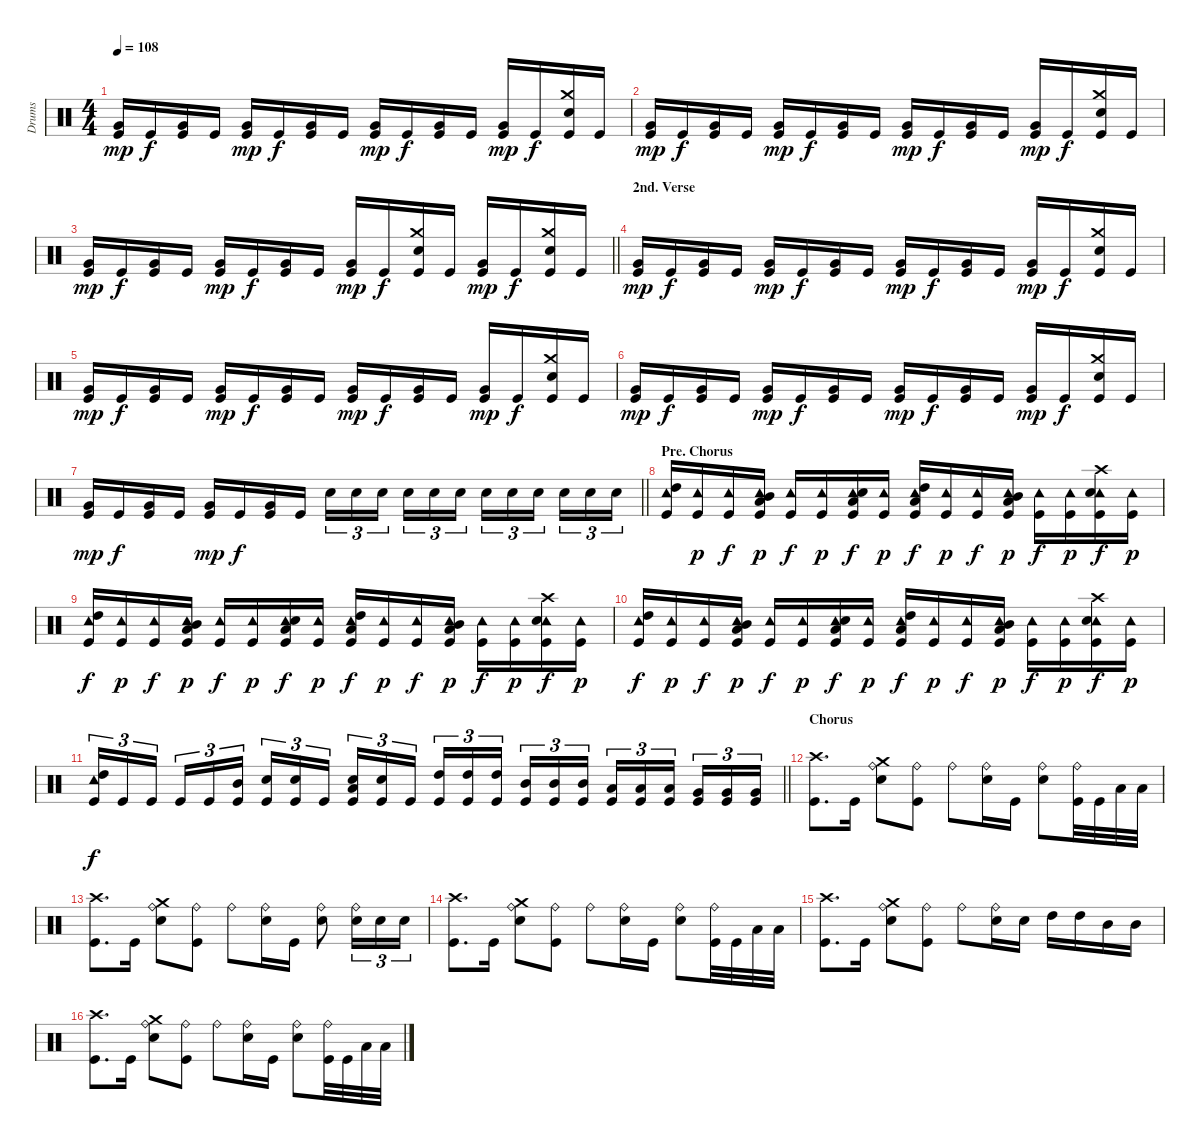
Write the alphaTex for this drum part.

\track ("Drums" "Drums") {instrument percussion}
\staff {score}
\articulation defaults
\ts (4 4)
\tempo 108
\clef neutral
\ks c
("Very Low Tom (hit)" "Kick (hit)").16{dy mp} "Kick (hit)".16{dy f} ("Very Low Tom (hit)" "Kick (hit)").16 "Kick (hit)".16 ("Very Low Tom (hit)" "Kick (hit)").16{dy mp} "Kick (hit)".16{dy f} ("Very Low Tom (hit)" "Kick (hit)").16 "Kick (hit)".16 ("Very Low Tom (hit)" "Kick (hit)").16{dy mp} "Kick (hit)".16{dy f} ("Very Low Tom (hit)" "Kick (hit)").16 "Kick (hit)".16 ("Very Low Tom (hit)" "Kick (hit)").16{dy mp} "Kick (hit)".16{dy f} ("Crash medium (hit)" "Electric Snare (hit)" "Kick (hit)").16 "Kick (hit)".16 |
("Very Low Tom (hit)" "Kick (hit)").16{dy mp} "Kick (hit)".16{dy f} ("Very Low Tom (hit)" "Kick (hit)").16 "Kick (hit)".16 ("Very Low Tom (hit)" "Kick (hit)").16{dy mp} "Kick (hit)".16{dy f} ("Very Low Tom (hit)" "Kick (hit)").16 "Kick (hit)".16 ("Very Low Tom (hit)" "Kick (hit)").16{dy mp} "Kick (hit)".16{dy f} ("Very Low Tom (hit)" "Kick (hit)").16 "Kick (hit)".16 ("Very Low Tom (hit)" "Kick (hit)").16{dy mp} "Kick (hit)".16{dy f} ("Crash medium (hit)" "Electric Snare (hit)" "Kick (hit)").16 "Kick (hit)".16 |
\barLineRight lightlight
("Very Low Tom (hit)" "Kick (hit)").16{dy mp} "Kick (hit)".16{dy f} ("Very Low Tom (hit)" "Kick (hit)").16 "Kick (hit)".16 ("Very Low Tom (hit)" "Kick (hit)").16{dy mp} "Kick (hit)".16{dy f} ("Very Low Tom (hit)" "Kick (hit)").16 "Kick (hit)".16 ("Very Low Tom (hit)" "Kick (hit)").16{dy mp} "Kick (hit)".16{dy f} ("Crash medium (hit)" "Electric Snare (hit)" "Kick (hit)").16 "Kick (hit)".16 ("Very Low Tom (hit)" "Kick (hit)").16{dy mp} "Kick (hit)".16{dy f} ("Crash medium (hit)" "Electric Snare (hit)" "Kick (hit)").16 "Kick (hit)".16 |
\section ("" "2nd. Verse")
("Very Low Tom (hit)" "Kick (hit)").16{dy mp} "Kick (hit)".16{dy f} ("Very Low Tom (hit)" "Kick (hit)").16 "Kick (hit)".16 ("Very Low Tom (hit)" "Kick (hit)").16{dy mp} "Kick (hit)".16{dy f} ("Very Low Tom (hit)" "Kick (hit)").16 "Kick (hit)".16 ("Very Low Tom (hit)" "Kick (hit)").16{dy mp} "Kick (hit)".16{dy f} ("Very Low Tom (hit)" "Kick (hit)").16 "Kick (hit)".16 ("Very Low Tom (hit)" "Kick (hit)").16{dy mp} "Kick (hit)".16{dy f} ("Crash medium (hit)" "Electric Snare (hit)" "Kick (hit)").16 "Kick (hit)".16 |
("Very Low Tom (hit)" "Kick (hit)").16{dy mp} "Kick (hit)".16{dy f} ("Very Low Tom (hit)" "Kick (hit)").16 "Kick (hit)".16 ("Very Low Tom (hit)" "Kick (hit)").16{dy mp} "Kick (hit)".16{dy f} ("Very Low Tom (hit)" "Kick (hit)").16 "Kick (hit)".16 ("Very Low Tom (hit)" "Kick (hit)").16{dy mp} "Kick (hit)".16{dy f} ("Very Low Tom (hit)" "Kick (hit)").16 "Kick (hit)".16 ("Very Low Tom (hit)" "Kick (hit)").16{dy mp} "Kick (hit)".16{dy f} ("Crash medium (hit)" "Electric Snare (hit)" "Kick (hit)").16 "Kick (hit)".16 |
("Very Low Tom (hit)" "Kick (hit)").16{dy mp} "Kick (hit)".16{dy f} ("Very Low Tom (hit)" "Kick (hit)").16 "Kick (hit)".16 ("Very Low Tom (hit)" "Kick (hit)").16{dy mp} "Kick (hit)".16{dy f} ("Very Low Tom (hit)" "Kick (hit)").16 "Kick (hit)".16 ("Very Low Tom (hit)" "Kick (hit)").16{dy mp} "Kick (hit)".16{dy f} ("Very Low Tom (hit)" "Kick (hit)").16 "Kick (hit)".16 ("Very Low Tom (hit)" "Kick (hit)").16{dy mp} "Kick (hit)".16{dy f} ("Crash medium (hit)" "Electric Snare (hit)" "Kick (hit)").16 "Kick (hit)".16 |
\barLineRight lightlight
("Very Low Tom (hit)" "Kick (hit)").16{dy mp} "Kick (hit)".16{dy f} ("Very Low Tom (hit)" "Kick (hit)").16 "Kick (hit)".16 ("Very Low Tom (hit)" "Kick (hit)").16{dy mp} "Kick (hit)".16{dy f} ("Very Low Tom (hit)" "Kick (hit)").16 "Kick (hit)".16 "Electric Snare (hit)".16{tu (3 2)} "Electric Snare (hit)".16{tu (3 2)} "Electric Snare (hit)".16{tu (3 2) beam splitsecondary} "Electric Snare (hit)".16{tu (3 2)} "Electric Snare (hit)".16{tu (3 2)} "Electric Snare (hit)".16{tu (3 2)} "Electric Snare (hit)".16{tu (3 2)} "Electric Snare (hit)".16{tu (3 2)} "Electric Snare (hit)".16{tu (3 2) beam splitsecondary} "Electric Snare (hit)".16{tu (3 2)} "Electric Snare (hit)".16{tu (3 2)} "Electric Snare (hit)".16{tu (3 2)} |
\section ("" "Pre. Chorus")
("Tambourine (hit)" "High Tom (hit)" "Kick (hit)").16 ("Tambourine (hit)" "Kick (hit)").16{dy p} ("Tambourine (hit)" "Kick (hit)").16{dy f} ("Tambourine (hit)" "Mid Tom (hit)" "Low Tom (hit)" "Kick (hit)").16{dy p} ("Tambourine (hit)" "Kick (hit)").16{dy f} ("Tambourine (hit)" "Kick (hit)").16{dy p} ("Tambourine (hit)" "Low Tom (hit)" "Electric Snare (hit)" "Kick (hit)").16{dy f} ("Tambourine (hit)" "Kick (hit)").16{dy p} ("Tambourine (hit)" "High Tom (hit)" "Low Tom (hit)" "Kick (hit)").16{dy f} ("Tambourine (hit)" "Kick (hit)").16{dy p} ("Tambourine (hit)" "Kick (hit)").16{dy f} ("Tambourine (hit)" "Mid Tom (hit)" "Low Tom (hit)" "Kick (hit)").16{dy p} ("Tambourine (hit)" "Kick (hit)").16{dy f} ("Tambourine (hit)" "Kick (hit)").16{dy p} ("Tambourine (hit)" "Crash high (hit)" "Electric Snare (hit)" "Kick (hit)").16{dy f} ("Tambourine (hit)" "Kick (hit)").16{dy p} |
("Tambourine (hit)" "High Tom (hit)" "Kick (hit)").16{dy f} ("Tambourine (hit)" "Kick (hit)").16{dy p} ("Tambourine (hit)" "Kick (hit)").16{dy f} ("Tambourine (hit)" "Mid Tom (hit)" "Low Tom (hit)" "Kick (hit)").16{dy p} ("Tambourine (hit)" "Kick (hit)").16{dy f} ("Tambourine (hit)" "Kick (hit)").16{dy p} ("Tambourine (hit)" "Low Tom (hit)" "Electric Snare (hit)" "Kick (hit)").16{dy f} ("Tambourine (hit)" "Kick (hit)").16{dy p} ("Tambourine (hit)" "High Tom (hit)" "Low Tom (hit)" "Kick (hit)").16{dy f} ("Tambourine (hit)" "Kick (hit)").16{dy p} ("Tambourine (hit)" "Kick (hit)").16{dy f} ("Tambourine (hit)" "Mid Tom (hit)" "Low Tom (hit)" "Kick (hit)").16{dy p} ("Tambourine (hit)" "Kick (hit)").16{dy f} ("Tambourine (hit)" "Kick (hit)").16{dy p} ("Tambourine (hit)" "Crash high (hit)" "Electric Snare (hit)" "Kick (hit)").16{dy f} ("Tambourine (hit)" "Kick (hit)").16{dy p} |
("Tambourine (hit)" "High Tom (hit)" "Kick (hit)").16{dy f} ("Tambourine (hit)" "Kick (hit)").16{dy p} ("Tambourine (hit)" "Kick (hit)").16{dy f} ("Tambourine (hit)" "Mid Tom (hit)" "Low Tom (hit)" "Kick (hit)").16{dy p} ("Tambourine (hit)" "Kick (hit)").16{dy f} ("Tambourine (hit)" "Kick (hit)").16{dy p} ("Tambourine (hit)" "Low Tom (hit)" "Electric Snare (hit)" "Kick (hit)").16{dy f} ("Tambourine (hit)" "Kick (hit)").16{dy p} ("Tambourine (hit)" "High Tom (hit)" "Low Tom (hit)" "Kick (hit)").16{dy f} ("Tambourine (hit)" "Kick (hit)").16{dy p} ("Tambourine (hit)" "Kick (hit)").16{dy f} ("Tambourine (hit)" "Mid Tom (hit)" "Low Tom (hit)" "Kick (hit)").16{dy p} ("Tambourine (hit)" "Kick (hit)").16{dy f} ("Tambourine (hit)" "Kick (hit)").16{dy p} ("Tambourine (hit)" "Crash high (hit)" "Electric Snare (hit)" "Kick (hit)").16{dy f} ("Tambourine (hit)" "Kick (hit)").16{dy p} |
\barLineRight lightlight
("Tambourine (hit)" "High Tom (hit)" "Kick (hit)").16{tu (3 2) dy f} "Kick (hit)".16{tu (3 2)} "Kick (hit)".16{tu (3 2) beam splitsecondary} "Kick (hit)".16{tu (3 2)} "Kick (hit)".16{tu (3 2)} ("Mid Tom (hit)" "Kick (hit)").16{tu (3 2)} ("Electric Snare (hit)" "Kick (hit)").16{tu (3 2)} ("Electric Snare (hit)" "Kick (hit)").16{tu (3 2)} "Kick (hit)".16{tu (3 2) beam splitsecondary} ("Low Tom (hit)" "Electric Snare (hit)" "Kick (hit)").16{tu (3 2)} ("Electric Snare (hit)" "Kick (hit)").16{tu (3 2)} "Kick (hit)".16{tu (3 2)} ("High Tom (hit)" "Kick (hit)").16{tu (3 2)} ("High Tom (hit)" "Kick (hit)").16{tu (3 2)} ("High Tom (hit)" "Kick (hit)").16{tu (3 2) beam splitsecondary} ("Mid Tom (hit)" "Kick (hit)").16{tu (3 2)} ("Mid Tom (hit)" "Kick (hit)").16{tu (3 2)} ("Mid Tom (hit)" "Kick (hit)").16{tu (3 2)} ("Low Tom (hit)" "Kick (hit)").16{tu (3 2)} ("Low Tom (hit)" "Kick (hit)").16{tu (3 2)} ("Low Tom (hit)" "Kick (hit)").16{tu (3 2) beam splitsecondary} ("Very Low Tom (hit)" "Kick (hit)").16{tu (3 2)} ("Very Low Tom (hit)" "Kick (hit)").16{tu (3 2)} ("Very Low Tom (hit)" "Kick (hit)").16{tu (3 2)} |
\section ("" "Chorus")
("Crash high (hit)" "Kick (hit)").8{d} "Kick (hit)".16 ("Crash medium (hit)" "Ride (bell)" "Electric Snare (hit)").8 ("Ride (bell)" "Kick (hit)").8 "Ride (bell)".8 ("Ride (bell)" "Electric Snare (hit)").16 "Kick (hit)".16 ("Ride (bell)" "Electric Snare (hit)").8 ("Ride (bell)" "Kick (hit)").32 "Kick (hit)".32 "Low Tom (hit)".32 "Low Tom (hit)".32 |
("Crash high (hit)" "Kick (hit)").8{d} "Kick (hit)".16 ("Crash medium (hit)" "Ride (bell)" "Electric Snare (hit)").8 ("Ride (bell)" "Kick (hit)").8 "Ride (bell)".8 ("Ride (bell)" "Electric Snare (hit)").16 "Kick (hit)".16 ("Ride (bell)" "Electric Snare (hit)").8 ("Ride (bell)" "Electric Snare (hit)").16{tu (3 2)} "Electric Snare (hit)".16{tu (3 2)} "Electric Snare (hit)".16{tu (3 2)} |
("Crash high (hit)" "Kick (hit)").8{d} "Kick (hit)".16 ("Crash medium (hit)" "Ride (bell)" "Electric Snare (hit)").8 ("Ride (bell)" "Kick (hit)").8 "Ride (bell)".8 ("Ride (bell)" "Electric Snare (hit)").16 "Kick (hit)".16 ("Ride (bell)" "Electric Snare (hit)").8 ("Ride (bell)" "Kick (hit)").32 "Kick (hit)".32 "Low Tom (hit)".32 "Low Tom (hit)".32 |
("Crash high (hit)" "Kick (hit)").8{d} "Kick (hit)".16 ("Crash medium (hit)" "Ride (bell)" "Electric Snare (hit)").8 ("Ride (bell)" "Kick (hit)").8 "Ride (bell)".8 ("Ride (bell)" "Electric Snare (hit)").16 "Electric Snare (hit)".16 "High Tom (hit)".16 "High Tom (hit)".16 "Mid Tom (hit)".16 "Mid Tom (hit)".16 |
("Crash high (hit)" "Kick (hit)").8{d} "Kick (hit)".16 ("Crash medium (hit)" "Ride (bell)" "Electric Snare (hit)").8 ("Ride (bell)" "Kick (hit)").8 "Ride (bell)".8 ("Ride (bell)" "Electric Snare (hit)").16 "Kick (hit)".16 ("Ride (bell)" "Electric Snare (hit)").8 ("Ride (bell)" "Kick (hit)").32 "Kick (hit)".32 "Low Tom (hit)".32 "Low Tom (hit)".32
